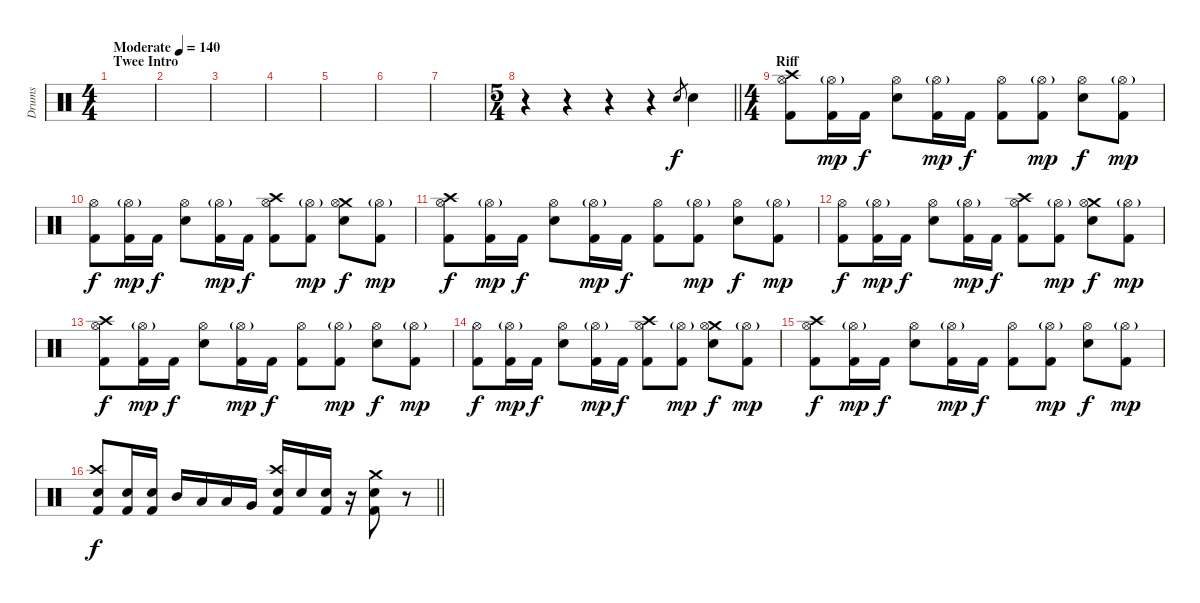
\track ("Drums" "Drums") {instrument percussion}
\staff {score}
\articulation defaults
\ts (4 4)
\section ("" "Twee Intro")
\tempo (140 "Moderate")
\clef neutral
\ks c
|
|
|
|
|
|
|
\ts (5 4)
\barLineRight lightlight
r.4 r.4 r.4 r.4 "Snare (hit) 2".8{gr} "Snare (hit) 2".4 |
\ts (4 4)
\section ("" "Riff")
("Crash high (hit)" "Hi-Hat (open)" "Kick (hit) 2").8 ("Hi-Hat (open)"{g} "Kick (hit) 2").16{dy mp} "Kick (hit) 2".16{dy f} ("Hi-Hat (open)" "Snare (hit) 2").8 ("Hi-Hat (open)"{g} "Kick (hit) 2").16{dy mp} "Kick (hit) 2".16{dy f} ("Hi-Hat (open)" "Kick (hit) 2").8 ("Hi-Hat (open)"{g} "Kick (hit) 2").8{dy mp} ("Hi-Hat (open)" "Snare (hit) 2").8{dy f} ("Hi-Hat (open)"{g} "Kick (hit) 2").8{dy mp} |
("Hi-Hat (open)" "Kick (hit) 2").8{dy f} ("Hi-Hat (open)"{g} "Kick (hit) 2").16{dy mp} "Kick (hit) 2".16{dy f} ("Hi-Hat (open)" "Snare (hit) 2").8 ("Hi-Hat (open)"{g} "Kick (hit) 2").16{dy mp} "Kick (hit) 2".16{dy f} ("Crash high (hit)" "Hi-Hat (open)" "Kick (hit) 2").8 ("Hi-Hat (open)"{g} "Kick (hit) 2").8{dy mp} ("Crash medium (hit)" "Hi-Hat (open)" "Snare (hit) 2").8{dy f} ("Hi-Hat (open)"{g} "Kick (hit) 2").8{dy mp} |
("Crash high (hit)" "Hi-Hat (open)" "Kick (hit) 2").8{dy f} ("Hi-Hat (open)"{g} "Kick (hit) 2").16{dy mp} "Kick (hit) 2".16{dy f} ("Hi-Hat (open)" "Snare (hit) 2").8 ("Hi-Hat (open)"{g} "Kick (hit) 2").16{dy mp} "Kick (hit) 2".16{dy f} ("Hi-Hat (open)" "Kick (hit) 2").8 ("Hi-Hat (open)"{g} "Kick (hit) 2").8{dy mp} ("Hi-Hat (open)" "Snare (hit) 2").8{dy f} ("Hi-Hat (open)"{g} "Kick (hit) 2").8{dy mp} |
("Hi-Hat (open)" "Kick (hit) 2").8{dy f} ("Hi-Hat (open)"{g} "Kick (hit) 2").16{dy mp} "Kick (hit) 2".16{dy f} ("Hi-Hat (open)" "Snare (hit) 2").8 ("Hi-Hat (open)"{g} "Kick (hit) 2").16{dy mp} "Kick (hit) 2".16{dy f} ("Crash high (hit)" "Hi-Hat (open)" "Kick (hit) 2").8 ("Hi-Hat (open)"{g} "Kick (hit) 2").8{dy mp} ("Crash medium (hit)" "Hi-Hat (open)" "Snare (hit) 2").8{dy f} ("Hi-Hat (open)"{g} "Kick (hit) 2").8{dy mp} |
("Crash high (hit)" "Hi-Hat (open)" "Kick (hit) 2").8{dy f} ("Hi-Hat (open)"{g} "Kick (hit) 2").16{dy mp} "Kick (hit) 2".16{dy f} ("Hi-Hat (open)" "Snare (hit) 2").8 ("Hi-Hat (open)"{g} "Kick (hit) 2").16{dy mp} "Kick (hit) 2".16{dy f} ("Hi-Hat (open)" "Kick (hit) 2").8 ("Hi-Hat (open)"{g} "Kick (hit) 2").8{dy mp} ("Hi-Hat (open)" "Snare (hit) 2").8{dy f} ("Hi-Hat (open)"{g} "Kick (hit) 2").8{dy mp} |
("Hi-Hat (open)" "Kick (hit) 2").8{dy f} ("Hi-Hat (open)"{g} "Kick (hit) 2").16{dy mp} "Kick (hit) 2".16{dy f} ("Hi-Hat (open)" "Snare (hit) 2").8 ("Hi-Hat (open)"{g} "Kick (hit) 2").16{dy mp} "Kick (hit) 2".16{dy f} ("Crash high (hit)" "Hi-Hat (open)" "Kick (hit) 2").8 ("Hi-Hat (open)"{g} "Kick (hit) 2").8{dy mp} ("Crash medium (hit)" "Hi-Hat (open)" "Snare (hit) 2").8{dy f} ("Hi-Hat (open)"{g} "Kick (hit) 2").8{dy mp} |
("Crash high (hit)" "Hi-Hat (open)" "Kick (hit) 2").8{dy f} ("Hi-Hat (open)"{g} "Kick (hit) 2").16{dy mp} "Kick (hit) 2".16{dy f} ("Hi-Hat (open)" "Snare (hit) 2").8 ("Hi-Hat (open)"{g} "Kick (hit) 2").16{dy mp} "Kick (hit) 2".16{dy f} ("Hi-Hat (open)" "Kick (hit) 2").8 ("Hi-Hat (open)"{g} "Kick (hit) 2").8{dy mp} ("Hi-Hat (open)" "Snare (hit) 2").8{dy f} ("Hi-Hat (open)"{g} "Kick (hit) 2").8{dy mp} |
\barLineRight lightlight
("Crash high (hit)" "Snare (hit) 2" "Kick (hit) 2").8{dy f} ("Snare (hit) 2" "Kick (hit) 2").16 ("Snare (hit) 2" "Kick (hit) 2").16 "Mid Tom (hit)".16 "Low Tom (hit)".16 "Low Tom (hit)".16 "Very Low Tom (hit)".16 ("Crash high (hit)" "Snare (hit) 2" "Kick (hit) 2").16 "Snare (hit) 2".16 ("Snare (hit) 2" "Kick (hit) 2").16 r.16 ("Crash medium (hit)" "Snare (hit) 2" "Kick (hit) 2").8 r.8
